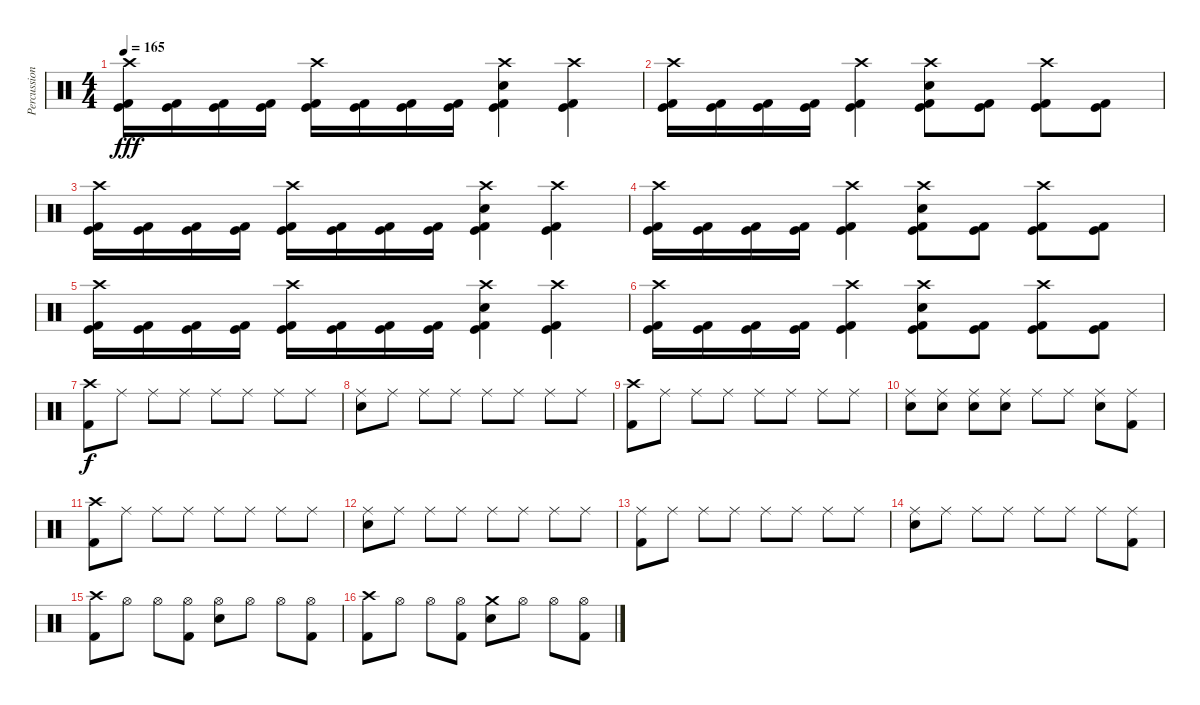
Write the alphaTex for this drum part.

\track ("Percussion" "Percussion") {instrument percussion}
\staff {score}
\articulation defaults
\ts (4 4)
\tempo 165
\clef neutral
\ks c
("Crash high (hit)" "Kick (hit) 2" "Kick (hit)").16{dy fff} ("Kick (hit) 2" "Kick (hit)").16 ("Kick (hit) 2" "Kick (hit)").16 ("Kick (hit) 2" "Kick (hit)").16 ("Crash high (hit)" "Kick (hit) 2" "Kick (hit)").16 ("Kick (hit) 2" "Kick (hit)").16 ("Kick (hit) 2" "Kick (hit)").16 ("Kick (hit) 2" "Kick (hit)").16 ("Electric Snare (hit)" "Crash high (hit)" "Kick (hit) 2" "Kick (hit)").4 ("Crash high (hit)" "Kick (hit) 2" "Kick (hit)").4 |
("Crash high (hit)" "Kick (hit) 2" "Kick (hit)").16 ("Kick (hit) 2" "Kick (hit)").16 ("Kick (hit) 2" "Kick (hit)").16 ("Kick (hit) 2" "Kick (hit)").16 ("Crash high (hit)" "Kick (hit) 2" "Kick (hit)").4 ("Electric Snare (hit)" "Crash high (hit)" "Kick (hit) 2" "Kick (hit)").8 ("Kick (hit) 2" "Kick (hit)").8 ("Crash high (hit)" "Kick (hit) 2" "Kick (hit)").8 ("Kick (hit) 2" "Kick (hit)").8 |
("Crash high (hit)" "Kick (hit) 2" "Kick (hit)").16 ("Kick (hit) 2" "Kick (hit)").16 ("Kick (hit) 2" "Kick (hit)").16 ("Kick (hit) 2" "Kick (hit)").16 ("Crash high (hit)" "Kick (hit) 2" "Kick (hit)").16 ("Kick (hit) 2" "Kick (hit)").16 ("Kick (hit) 2" "Kick (hit)").16 ("Kick (hit) 2" "Kick (hit)").16 ("Electric Snare (hit)" "Crash high (hit)" "Kick (hit) 2" "Kick (hit)").4 ("Crash high (hit)" "Kick (hit) 2" "Kick (hit)").4 |
("Crash high (hit)" "Kick (hit) 2" "Kick (hit)").16 ("Kick (hit) 2" "Kick (hit)").16 ("Kick (hit) 2" "Kick (hit)").16 ("Kick (hit) 2" "Kick (hit)").16 ("Crash high (hit)" "Kick (hit) 2" "Kick (hit)").4 ("Electric Snare (hit)" "Crash high (hit)" "Kick (hit) 2" "Kick (hit)").8 ("Kick (hit) 2" "Kick (hit)").8 ("Crash high (hit)" "Kick (hit) 2" "Kick (hit)").8 ("Kick (hit) 2" "Kick (hit)").8 |
("Crash high (hit)" "Kick (hit) 2" "Kick (hit)").16 ("Kick (hit) 2" "Kick (hit)").16 ("Kick (hit) 2" "Kick (hit)").16 ("Kick (hit) 2" "Kick (hit)").16 ("Crash high (hit)" "Kick (hit) 2" "Kick (hit)").16 ("Kick (hit) 2" "Kick (hit)").16 ("Kick (hit) 2" "Kick (hit)").16 ("Kick (hit) 2" "Kick (hit)").16 ("Electric Snare (hit)" "Crash high (hit)" "Kick (hit) 2" "Kick (hit)").4 ("Crash high (hit)" "Kick (hit) 2" "Kick (hit)").4 |
("Crash high (hit)" "Kick (hit) 2" "Kick (hit)").16 ("Kick (hit) 2" "Kick (hit)").16 ("Kick (hit) 2" "Kick (hit)").16 ("Kick (hit) 2" "Kick (hit)").16 ("Crash high (hit)" "Kick (hit) 2" "Kick (hit)").4 ("Electric Snare (hit)" "Crash high (hit)" "Kick (hit) 2" "Kick (hit)").8 ("Kick (hit) 2" "Kick (hit)").8 ("Crash high (hit)" "Kick (hit) 2" "Kick (hit)").8 ("Kick (hit) 2" "Kick (hit)").8 |
("Crash high (hit)" "Kick (hit) 2").8{dy f} "Ride (middle)".8 "Ride (middle)".8 "Ride (middle)".8 "Ride (middle)".8 "Ride (middle)".8 "Ride (middle)".8 "Ride (middle)".8 |
("Ride (middle)" "Electric Snare (hit)").8 "Ride (middle)".8 "Ride (middle)".8 "Ride (middle)".8 "Ride (middle)".8 "Ride (middle)".8 "Ride (middle)".8 "Ride (middle)".8 |
("Crash high (hit)" "Kick (hit) 2").8 "Ride (middle)".8 "Ride (middle)".8 "Ride (middle)".8 "Ride (middle)".8 "Ride (middle)".8 "Ride (middle)".8 "Ride (middle)".8 |
("Ride (middle)" "Electric Snare (hit)").8 ("Ride (middle)" "Electric Snare (hit)").8 ("Ride (middle)" "Electric Snare (hit)").8 ("Ride (middle)" "Electric Snare (hit)").8 "Ride (middle)".8 "Ride (middle)".8 ("Ride (middle)" "Electric Snare (hit)").8 ("Ride (middle)" "Kick (hit) 2").8 |
("Crash high (hit)" "Kick (hit) 2").8 "Ride (middle)".8 "Ride (middle)".8 "Ride (middle)".8 "Ride (middle)".8 "Ride (middle)".8 "Ride (middle)".8 "Ride (middle)".8 |
("Ride (middle)" "Electric Snare (hit)").8 "Ride (middle)".8 "Ride (middle)".8 "Ride (middle)".8 "Ride (middle)".8 "Ride (middle)".8 "Ride (middle)".8 "Ride (middle)".8 |
("Ride (middle)" "Kick (hit) 2").8 "Ride (middle)".8 "Ride (middle)".8 "Ride (middle)".8 "Ride (middle)".8 "Ride (middle)".8 "Ride (middle)".8 "Ride (middle)".8 |
("Ride (middle)" "Electric Snare (hit)").8 "Ride (middle)".8 "Ride (middle)".8 "Ride (middle)".8 "Ride (middle)".8 "Ride (middle)".8 "Ride (middle)".8 ("Ride (middle)" "Kick (hit) 2").8 |
("Crash high (hit)" "Kick (hit) 2").8 "Hi-Hat (open)".8 "Hi-Hat (open)".8 ("Hi-Hat (open)" "Kick (hit) 2").8 ("Hi-Hat (open)" "Electric Snare (hit)").8 "Hi-Hat (open)".8 "Hi-Hat (open)".8 ("Hi-Hat (open)" "Kick (hit) 2").8 |
("Crash high (hit)" "Kick (hit) 2").8 "Hi-Hat (open)".8 "Hi-Hat (open)".8 ("Hi-Hat (open)" "Kick (hit) 2").8 ("Crash medium (hit)" "Electric Snare (hit)").8 "Hi-Hat (open)".8 "Hi-Hat (open)".8 ("Hi-Hat (open)" "Kick (hit) 2").8
